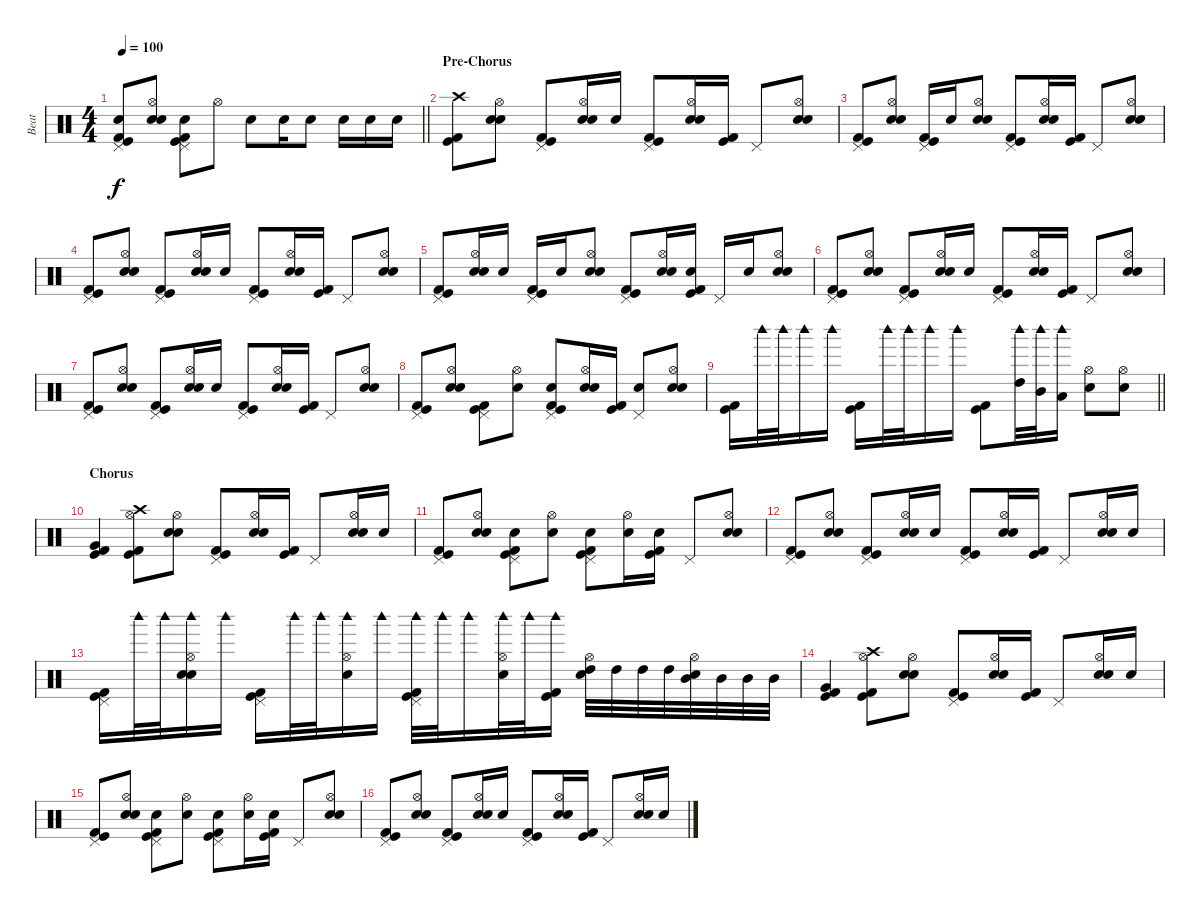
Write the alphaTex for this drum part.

\track ("Beat" "Beat") {instrument percussion}
\staff {score}
\articulation defaults
\ts (4 4)
\tempo 100
\clef neutral
\barLineRight lightlight
\ks c
("Pedal Hi-Hat (hit)" "Hand Clap (hit)" "Kick (hit)" "Kick (hit) 2").8{dy f} ("Hi-Hat (open)" "Hand Clap (hit)" "Snare (hit) 2").8 ("Pedal Hi-Hat (hit)" "Hand Clap (hit)" "Kick (hit)" "Kick (hit) 2").8 "Hi-Hat (open)".8 "Hand Clap (hit)".8 "Hand Clap (hit)".16 "Hand Clap (hit)".8 "Hand Clap (hit)".16 "Hand Clap (hit)".16 "Hand Clap (hit)".16 |
\section ("" "Pre-Chorus")
("Crash high (hit)" "Kick (hit)" "Kick (hit) 2").8 ("Hi-Hat (open)" "Hand Clap (hit)" "Snare (hit) 2").8 ("Pedal Hi-Hat (hit)" "Kick (hit)" "Kick (hit) 2").8 ("Hi-Hat (open)" "Hand Clap (hit)" "Snare (hit) 2").16 "Hand Clap (hit)".16 ("Pedal Hi-Hat (hit)" "Kick (hit)" "Kick (hit) 2").8 ("Hi-Hat (open)" "Hand Clap (hit)" "Snare (hit) 2").16 ("Kick (hit)" "Kick (hit) 2").16 "Pedal Hi-Hat (hit)".8 ("Hi-Hat (open)" "Hand Clap (hit)" "Snare (hit) 2").8 |
("Pedal Hi-Hat (hit)" "Kick (hit)" "Kick (hit) 2").8 ("Hi-Hat (open)" "Hand Clap (hit)" "Snare (hit) 2").8 ("Pedal Hi-Hat (hit)" "Kick (hit)" "Kick (hit) 2").16 "Hand Clap (hit)".16 ("Hi-Hat (open)" "Hand Clap (hit)" "Snare (hit) 2").8 ("Pedal Hi-Hat (hit)" "Kick (hit)" "Kick (hit) 2").8 ("Hi-Hat (open)" "Hand Clap (hit)" "Snare (hit) 2").16 ("Kick (hit)" "Kick (hit) 2").16 "Pedal Hi-Hat (hit)".8 ("Hi-Hat (open)" "Hand Clap (hit)" "Snare (hit) 2").8 |
("Pedal Hi-Hat (hit)" "Kick (hit)" "Kick (hit) 2").8 ("Hi-Hat (open)" "Hand Clap (hit)" "Snare (hit) 2").8 ("Pedal Hi-Hat (hit)" "Kick (hit)" "Kick (hit) 2").8 ("Hi-Hat (open)" "Hand Clap (hit)" "Snare (hit) 2").16 "Hand Clap (hit)".16 ("Pedal Hi-Hat (hit)" "Kick (hit)" "Kick (hit) 2").8 ("Hi-Hat (open)" "Hand Clap (hit)" "Snare (hit) 2").16 ("Kick (hit)" "Kick (hit) 2").16 "Pedal Hi-Hat (hit)".8 ("Hi-Hat (open)" "Hand Clap (hit)" "Snare (hit) 2").8 |
("Pedal Hi-Hat (hit)" "Kick (hit)" "Kick (hit) 2").8 ("Hi-Hat (open)" "Hand Clap (hit)" "Snare (hit) 2").16 "Hand Clap (hit)".16 ("Pedal Hi-Hat (hit)" "Kick (hit)" "Kick (hit) 2").16 "Hand Clap (hit)".16 ("Hi-Hat (open)" "Hand Clap (hit)" "Snare (hit) 2").8 ("Pedal Hi-Hat (hit)" "Kick (hit)" "Kick (hit) 2").8 ("Hi-Hat (open)" "Hand Clap (hit)" "Snare (hit) 2").16 ("Hand Clap (hit)" "Kick (hit)" "Kick (hit) 2").16 "Pedal Hi-Hat (hit)".16 "Hand Clap (hit)".16 ("Hi-Hat (open)" "Hand Clap (hit)" "Snare (hit) 2").8 |
("Pedal Hi-Hat (hit)" "Kick (hit)" "Kick (hit) 2").8 ("Hi-Hat (open)" "Hand Clap (hit)" "Snare (hit) 2").8 ("Pedal Hi-Hat (hit)" "Kick (hit)" "Kick (hit) 2").8 ("Hi-Hat (open)" "Hand Clap (hit)" "Snare (hit) 2").16 "Hand Clap (hit)".16 ("Pedal Hi-Hat (hit)" "Kick (hit)" "Kick (hit) 2").8 ("Hi-Hat (open)" "Hand Clap (hit)" "Snare (hit) 2").16 ("Kick (hit)" "Kick (hit) 2").16 "Pedal Hi-Hat (hit)".8 ("Hi-Hat (open)" "Hand Clap (hit)" "Snare (hit) 2").8 |
("Pedal Hi-Hat (hit)" "Kick (hit)" "Kick (hit) 2").8 ("Hi-Hat (open)" "Hand Clap (hit)" "Snare (hit) 2").8 ("Pedal Hi-Hat (hit)" "Kick (hit)" "Kick (hit) 2").8 ("Hi-Hat (open)" "Hand Clap (hit)" "Snare (hit) 2").16 "Hand Clap (hit)".16 ("Pedal Hi-Hat (hit)" "Kick (hit)" "Kick (hit) 2").8 ("Hi-Hat (open)" "Hand Clap (hit)" "Snare (hit) 2").16 ("Kick (hit)" "Kick (hit) 2").16 "Pedal Hi-Hat (hit)".8 ("Hi-Hat (open)" "Hand Clap (hit)" "Snare (hit) 2").8 |
("Pedal Hi-Hat (hit)" "Kick (hit)" "Kick (hit) 2").8 ("Hi-Hat (open)" "Hand Clap (hit)" "Snare (hit) 2").8 ("Pedal Hi-Hat (hit)" "Kick (hit)" "Kick (hit) 2").8 ("Hi-Hat (open)" "Snare (hit) 2").8 ("Pedal Hi-Hat (hit)" "Hand Clap (hit)" "Kick (hit)" "Kick (hit) 2").8 ("Hi-Hat (open)" "Hand Clap (hit)" "Snare (hit) 2").16 ("Kick (hit)" "Kick (hit) 2").16 ("Pedal Hi-Hat (hit)" "Hand Clap (hit)").8 ("Hi-Hat (open)" "Hand Clap (hit)" "Snare (hit) 2").8 |
\barLineRight lightlight
("Kick (hit)" "Kick (hit) 2").16 "Woodblock high (hit)".32 "Woodblock high (hit)".32 "Woodblock high (hit)".16 "Woodblock high (hit)".16 ("Kick (hit)" "Kick (hit) 2").16 "Woodblock high (hit)".32 "Woodblock high (hit)".32 "Woodblock high (hit)".16 "Woodblock high (hit)".16 ("Kick (hit)" "Kick (hit) 2").8 ("Woodblock high (hit)" "High Tom (hit)").32 ("Woodblock high (hit)" "Mid Tom (hit)").32 ("Woodblock high (hit)" "Low Tom (hit)").16 ("Hi-Hat (open)" "Snare (hit) 2").8 ("Hi-Hat (open)" "Snare (hit) 2").8 |
\section ("" "Chorus")
("Very Low Tom (hit)" "Kick (hit)" "Kick (hit) 2").4 ("Crash high (hit)" "Hi-Hat (open)" "Kick (hit)" "Kick (hit) 2").8 ("Hi-Hat (open)" "Hand Clap (hit)" "Snare (hit) 2").8 ("Pedal Hi-Hat (hit)" "Kick (hit)" "Kick (hit) 2").8 ("Hi-Hat (open)" "Hand Clap (hit)" "Snare (hit) 2").16 ("Kick (hit)" "Kick (hit) 2").16 "Pedal Hi-Hat (hit)".8 ("Hi-Hat (open)" "Hand Clap (hit)" "Snare (hit) 2").16 "Hand Clap (hit)".16 |
("Pedal Hi-Hat (hit)" "Kick (hit)" "Kick (hit) 2").8 ("Hi-Hat (open)" "Hand Clap (hit)" "Snare (hit) 2").8 ("Pedal Hi-Hat (hit)" "Hand Clap (hit)" "Kick (hit)" "Kick (hit) 2").8 ("Hi-Hat (open)" "Snare (hit) 2").8 ("Pedal Hi-Hat (hit)" "Hand Clap (hit)" "Kick (hit)" "Kick (hit) 2").8 ("Hi-Hat (open)" "Snare (hit) 2").16 ("Hand Clap (hit)" "Kick (hit)" "Kick (hit) 2").16 "Pedal Hi-Hat (hit)".8 ("Hi-Hat (open)" "Hand Clap (hit)" "Snare (hit) 2").8 |
("Pedal Hi-Hat (hit)" "Kick (hit)" "Kick (hit) 2").8 ("Hi-Hat (open)" "Hand Clap (hit)" "Snare (hit) 2").8 ("Pedal Hi-Hat (hit)" "Kick (hit)" "Kick (hit) 2").8 ("Hi-Hat (open)" "Hand Clap (hit)" "Snare (hit) 2").16 "Hand Clap (hit)".16 ("Pedal Hi-Hat (hit)" "Kick (hit)" "Kick (hit) 2").8 ("Hi-Hat (open)" "Hand Clap (hit)" "Snare (hit) 2").16 ("Kick (hit)" "Kick (hit) 2").16 "Pedal Hi-Hat (hit)".8 ("Hi-Hat (open)" "Hand Clap (hit)" "Snare (hit) 2").16 "Hand Clap (hit)".16 |
("Pedal Hi-Hat (hit)" "Kick (hit)" "Kick (hit) 2").16 "Woodblock high (hit)".32 "Woodblock high (hit)".32 ("Hi-Hat (open)" "Woodblock high (hit)" "Snare (hit) 2" "Hand Clap (hit)").16 "Woodblock high (hit)".16 ("Pedal Hi-Hat (hit)" "Kick (hit)" "Kick (hit) 2").16 "Woodblock high (hit)".32 "Woodblock high (hit)".32 ("Hi-Hat (open)" "Woodblock high (hit)" "Snare (hit) 2").16 "Woodblock high (hit)".16 ("Pedal Hi-Hat (hit)" "Woodblock high (hit)" "Kick (hit)" "Kick (hit) 2").32 "Woodblock high (hit)".32 "Woodblock high (hit)".16 ("Hi-Hat (open)" "Woodblock high (hit)" "Snare (hit) 2").32 "Woodblock high (hit)".32 ("Woodblock high (hit)" "Kick (hit)" "Kick (hit) 2").16 ("Hi-Hat (open)" "High Tom (hit)" "Snare (hit) 2").32 "High Tom (hit)".32 "High Tom (hit)".32 "High Tom (hit)".32 ("Hi-Hat (open)" "Mid Tom (hit)" "Snare (hit) 2").32 "Mid Tom (hit)".32 "Mid Tom (hit)".32 "Mid Tom (hit)".32 |
("Very Low Tom (hit)" "Kick (hit)" "Kick (hit) 2").4 ("Crash high (hit)" "Hi-Hat (open)" "Kick (hit)" "Kick (hit) 2").8 ("Hi-Hat (open)" "Hand Clap (hit)" "Snare (hit) 2").8 ("Pedal Hi-Hat (hit)" "Kick (hit)" "Kick (hit) 2").8 ("Hi-Hat (open)" "Hand Clap (hit)" "Snare (hit) 2").16 ("Kick (hit)" "Kick (hit) 2").16 "Pedal Hi-Hat (hit)".8 ("Hi-Hat (open)" "Hand Clap (hit)" "Snare (hit) 2").16 "Hand Clap (hit)".16 |
("Pedal Hi-Hat (hit)" "Kick (hit)" "Kick (hit) 2").8 ("Hi-Hat (open)" "Hand Clap (hit)" "Snare (hit) 2").8 ("Pedal Hi-Hat (hit)" "Hand Clap (hit)" "Kick (hit)" "Kick (hit) 2").8 ("Hi-Hat (open)" "Snare (hit) 2").8 ("Pedal Hi-Hat (hit)" "Hand Clap (hit)" "Kick (hit)" "Kick (hit) 2").8 ("Hi-Hat (open)" "Snare (hit) 2").16 ("Hand Clap (hit)" "Kick (hit)" "Kick (hit) 2").16 "Pedal Hi-Hat (hit)".8 ("Hi-Hat (open)" "Hand Clap (hit)" "Snare (hit) 2").8 |
("Pedal Hi-Hat (hit)" "Kick (hit)" "Kick (hit) 2").8 ("Hi-Hat (open)" "Hand Clap (hit)" "Snare (hit) 2").8 ("Pedal Hi-Hat (hit)" "Kick (hit)" "Kick (hit) 2").8 ("Hi-Hat (open)" "Hand Clap (hit)" "Snare (hit) 2").16 "Hand Clap (hit)".16 ("Pedal Hi-Hat (hit)" "Kick (hit)" "Kick (hit) 2").8 ("Hi-Hat (open)" "Hand Clap (hit)" "Snare (hit) 2").16 ("Kick (hit)" "Kick (hit) 2").16 "Pedal Hi-Hat (hit)".8 ("Hi-Hat (open)" "Hand Clap (hit)" "Snare (hit) 2").16 "Hand Clap (hit)".16
